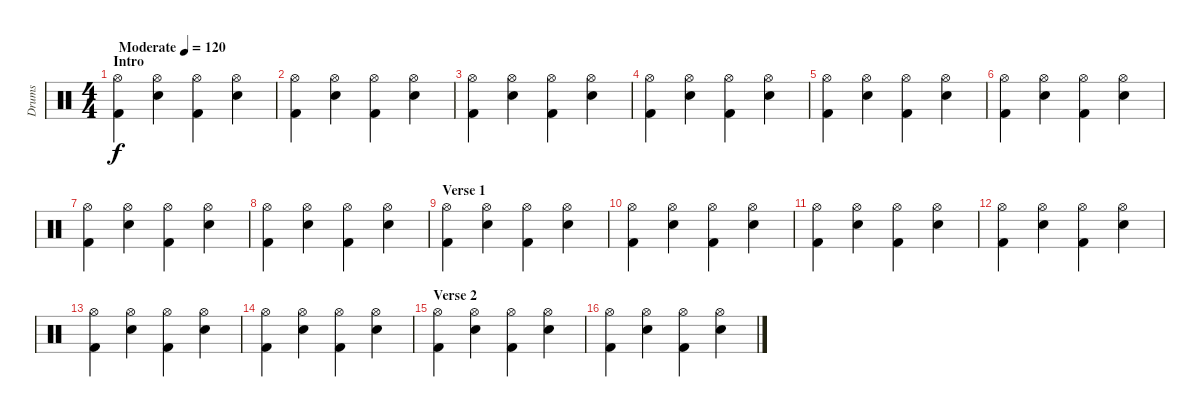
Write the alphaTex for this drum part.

\track ("Drums" "Drums") {instrument percussion}
\staff {score}
\articulation defaults
\ts (4 4)
\section ("" "Intro")
\tempo (120 "Moderate")
\clef neutral
\ks c
("Hi-Hat (open)" "Kick (hit) 2").4{dy f} ("Hi-Hat (open)" "Snare (hit) 2").4 ("Hi-Hat (open)" "Kick (hit) 2").4 ("Hi-Hat (open)" "Snare (hit) 2").4 |
("Hi-Hat (open)" "Kick (hit) 2").4 ("Hi-Hat (open)" "Snare (hit) 2").4 ("Hi-Hat (open)" "Kick (hit) 2").4 ("Hi-Hat (open)" "Snare (hit) 2").4 |
("Hi-Hat (open)" "Kick (hit) 2").4 ("Hi-Hat (open)" "Snare (hit) 2").4 ("Hi-Hat (open)" "Kick (hit) 2").4 ("Hi-Hat (open)" "Snare (hit) 2").4 |
("Hi-Hat (open)" "Kick (hit) 2").4 ("Hi-Hat (open)" "Snare (hit) 2").4 ("Hi-Hat (open)" "Kick (hit) 2").4 ("Hi-Hat (open)" "Snare (hit) 2").4 |
("Hi-Hat (open)" "Kick (hit) 2").4 ("Hi-Hat (open)" "Snare (hit) 2").4 ("Hi-Hat (open)" "Kick (hit) 2").4 ("Hi-Hat (open)" "Snare (hit) 2").4 |
("Hi-Hat (open)" "Kick (hit) 2").4 ("Hi-Hat (open)" "Snare (hit) 2").4 ("Hi-Hat (open)" "Kick (hit) 2").4 ("Hi-Hat (open)" "Snare (hit) 2").4 |
("Hi-Hat (open)" "Kick (hit) 2").4 ("Hi-Hat (open)" "Snare (hit) 2").4 ("Hi-Hat (open)" "Kick (hit) 2").4 ("Hi-Hat (open)" "Snare (hit) 2").4 |
("Hi-Hat (open)" "Kick (hit) 2").4 ("Hi-Hat (open)" "Snare (hit) 2").4 ("Hi-Hat (open)" "Kick (hit) 2").4 ("Hi-Hat (open)" "Snare (hit) 2").4 |
\section ("" "Verse 1")
("Hi-Hat (open)" "Kick (hit) 2").4 ("Hi-Hat (open)" "Snare (hit) 2").4 ("Hi-Hat (open)" "Kick (hit) 2").4 ("Hi-Hat (open)" "Snare (hit) 2").4 |
("Hi-Hat (open)" "Kick (hit) 2").4 ("Hi-Hat (open)" "Snare (hit) 2").4 ("Hi-Hat (open)" "Kick (hit) 2").4 ("Hi-Hat (open)" "Snare (hit) 2").4 |
("Hi-Hat (open)" "Kick (hit) 2").4 ("Hi-Hat (open)" "Snare (hit) 2").4 ("Hi-Hat (open)" "Kick (hit) 2").4 ("Hi-Hat (open)" "Snare (hit) 2").4 |
("Hi-Hat (open)" "Kick (hit) 2").4 ("Hi-Hat (open)" "Snare (hit) 2").4 ("Hi-Hat (open)" "Kick (hit) 2").4 ("Hi-Hat (open)" "Snare (hit) 2").4 |
("Hi-Hat (open)" "Kick (hit) 2").4 ("Hi-Hat (open)" "Snare (hit) 2").4 ("Hi-Hat (open)" "Kick (hit) 2").4 ("Hi-Hat (open)" "Snare (hit) 2").4 |
("Hi-Hat (open)" "Kick (hit) 2").4 ("Hi-Hat (open)" "Snare (hit) 2").4 ("Hi-Hat (open)" "Kick (hit) 2").4 ("Hi-Hat (open)" "Snare (hit) 2").4 |
\section ("" "Verse 2")
("Hi-Hat (open)" "Kick (hit) 2").4 ("Hi-Hat (open)" "Snare (hit) 2").4 ("Hi-Hat (open)" "Kick (hit) 2").4 ("Hi-Hat (open)" "Snare (hit) 2").4 |
("Hi-Hat (open)" "Kick (hit) 2").4 ("Hi-Hat (open)" "Snare (hit) 2").4 ("Hi-Hat (open)" "Kick (hit) 2").4 ("Hi-Hat (open)" "Snare (hit) 2").4
